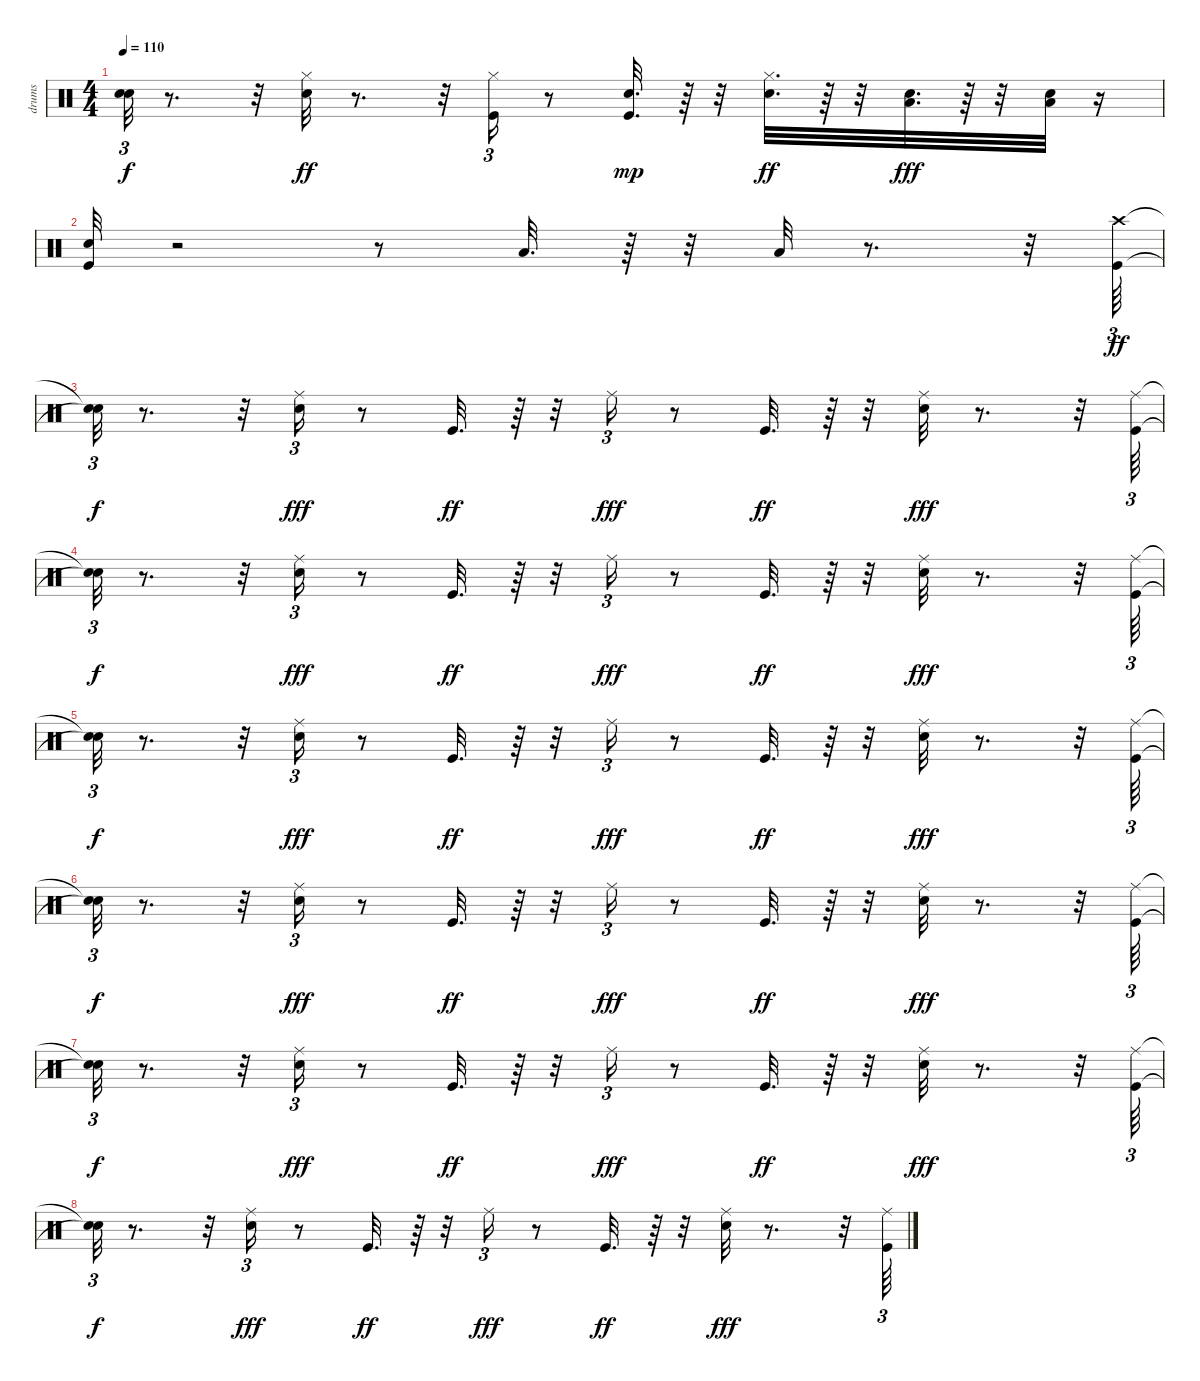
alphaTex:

\track ("drums    " "drums    ") {instrument percussion}
\staff {score}
\articulation defaults
\ts (4 4)
\tempo 110
\clef neutral
\ks c
("Snare (hit)"{t} "Snare (hit)"{t}).32{tu (3 2) dy f} r.8{d} r.32 ("Snare (hit) 2" "Hi-Hat (closed)").32{dy ff} r.8{d} r.32 ("Kick (hit)" "Hi-Hat (closed)").16{tu (3 2)} r.8 ("Kick (hit)" "Snare (hit) 2").32{d dy mp} r.64 r.32 ("Snare (hit) 2" "Hi-Hat (closed)").32{d dy ff} r.64 r.32 ("Snare (hit) 2" "Low Tom (hit)").32{d dy fff} r.64 r.32 ("Snare (hit) 2" "Low Floor Tom (hit)").32 r.16 |
("Kick (hit)" "Snare (hit) 2").32 r.2 r.8 "Low Tom (hit)".32{d} r.64 r.32 "Low Floor Tom (hit)".32 r.8{d} r.32 ("Kick (hit)" "Crash high (hit)").64{tu (3 2) dy ff} |
("Snare (hit)"{t} "Snare (hit)"{t}).32{tu (3 2) dy f} r.8{d} r.32 ("Snare (hit) 2" "Ride (middle)").16{tu (3 2) dy fff} r.8 "Kick (hit)".32{d dy ff} r.64 r.32 "Ride (middle)".16{tu (3 2) dy fff} r.8 "Kick (hit)".32{d dy ff} r.64 r.32 ("Snare (hit) 2" "Ride (middle)").32{dy fff} r.8{d} r.32 ("Kick (hit)" "Ride (middle)").64{tu (3 2)} |
("Snare (hit)"{t} "Snare (hit)"{t}).32{tu (3 2) dy f} r.8{d} r.32 ("Snare (hit) 2" "Ride (middle)").16{tu (3 2) dy fff} r.8 "Kick (hit)".32{d dy ff} r.64 r.32 "Ride (middle)".16{tu (3 2) dy fff} r.8 "Kick (hit)".32{d dy ff} r.64 r.32 ("Snare (hit) 2" "Ride (middle)").32{dy fff} r.8{d} r.32 ("Kick (hit)" "Ride (middle)").64{tu (3 2)} |
("Snare (hit)"{t} "Snare (hit)"{t}).32{tu (3 2) dy f} r.8{d} r.32 ("Snare (hit) 2" "Ride (middle)").16{tu (3 2) dy fff} r.8 "Kick (hit)".32{d dy ff} r.64 r.32 "Ride (middle)".16{tu (3 2) dy fff} r.8 "Kick (hit)".32{d dy ff} r.64 r.32 ("Snare (hit) 2" "Ride (middle)").32{dy fff} r.8{d} r.32 ("Kick (hit)" "Ride (middle)").64{tu (3 2)} |
("Snare (hit)"{t} "Snare (hit)"{t}).32{tu (3 2) dy f} r.8{d} r.32 ("Snare (hit) 2" "Ride (middle)").16{tu (3 2) dy fff} r.8 "Kick (hit)".32{d dy ff} r.64 r.32 "Ride (middle)".16{tu (3 2) dy fff} r.8 "Kick (hit)".32{d dy ff} r.64 r.32 ("Snare (hit) 2" "Ride (middle)").32{dy fff} r.8{d} r.32 ("Kick (hit)" "Ride (middle)").64{tu (3 2)} |
("Snare (hit)"{t} "Snare (hit)"{t}).32{tu (3 2) dy f} r.8{d} r.32 ("Ride (middle)" "Snare (hit) 2").16{tu (3 2) dy fff} r.8 "Kick (hit)".32{d dy ff} r.64 r.32 "Ride (middle)".16{tu (3 2) dy fff} r.8 "Kick (hit)".32{d dy ff} r.64 r.32 ("Snare (hit) 2" "Ride (middle)").32{dy fff} r.8{d} r.32 ("Kick (hit)" "Ride (middle)").64{tu (3 2)} |
("Snare (hit)"{t} "Snare (hit)"{t}).32{tu (3 2) dy f} r.8{d} r.32 ("Snare (hit) 2" "Ride (middle)").16{tu (3 2) dy fff} r.8 "Kick (hit)".32{d dy ff} r.64 r.32 "Ride (middle)".16{tu (3 2) dy fff} r.8 "Kick (hit)".32{d dy ff} r.64 r.32 ("Snare (hit) 2" "Ride (middle)").32{dy fff} r.8{d} r.32 ("Kick (hit)" "Ride (middle)").64{tu (3 2)}
